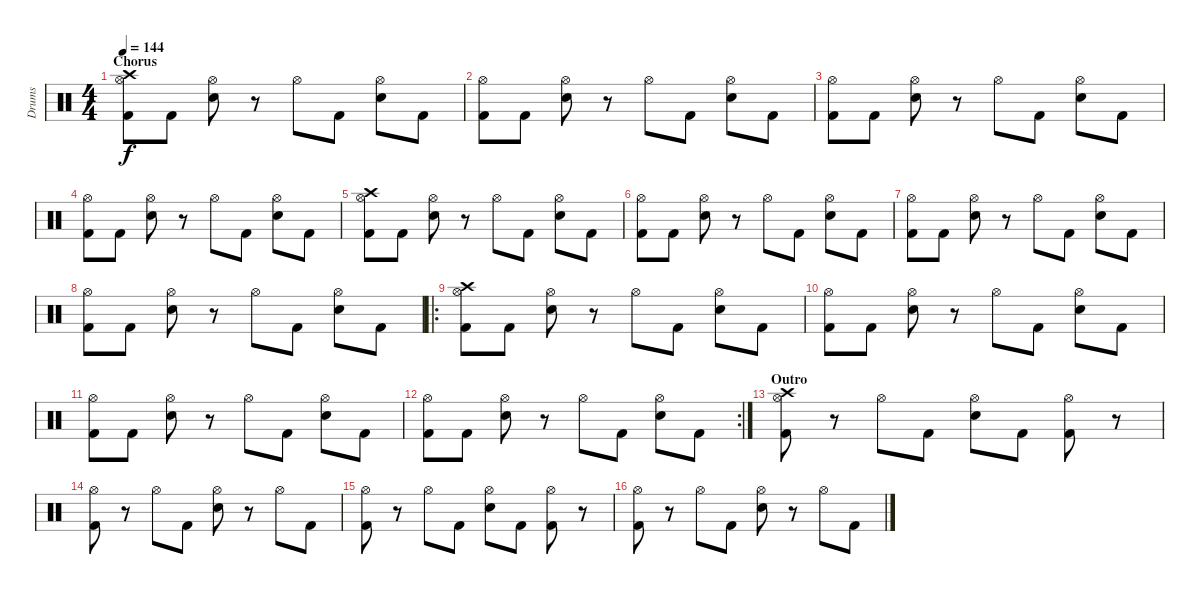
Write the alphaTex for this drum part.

\track ("Drums" "Drums") {instrument percussion}
\staff {score}
\articulation defaults
\ts (4 4)
\section ("" "Chorus")
\tempo 144
\clef neutral
\ks c
("Crash high (hit)" "Hi-Hat (open)" "Kick (hit) 2").8{dy f} "Kick (hit) 2".8 ("Hi-Hat (open)" "Electric Snare (hit)").8 r.8 "Hi-Hat (open)".8 "Kick (hit) 2".8 ("Hi-Hat (open)" "Electric Snare (hit)").8 "Kick (hit) 2".8 |
("Hi-Hat (open)" "Kick (hit) 2").8 "Kick (hit) 2".8 ("Hi-Hat (open)" "Electric Snare (hit)").8 r.8 "Hi-Hat (open)".8 "Kick (hit) 2".8 ("Hi-Hat (open)" "Electric Snare (hit)").8 "Kick (hit) 2".8 |
("Hi-Hat (open)" "Kick (hit) 2").8 "Kick (hit) 2".8 ("Hi-Hat (open)" "Electric Snare (hit)").8 r.8 "Hi-Hat (open)".8 "Kick (hit) 2".8 ("Hi-Hat (open)" "Electric Snare (hit)").8 "Kick (hit) 2".8 |
("Hi-Hat (open)" "Kick (hit) 2").8 "Kick (hit) 2".8 ("Hi-Hat (open)" "Electric Snare (hit)").8 r.8 "Hi-Hat (open)".8 "Kick (hit) 2".8 ("Hi-Hat (open)" "Electric Snare (hit)").8 "Kick (hit) 2".8 |
("Crash high (hit)" "Hi-Hat (open)" "Kick (hit) 2").8 "Kick (hit) 2".8 ("Hi-Hat (open)" "Electric Snare (hit)").8 r.8 "Hi-Hat (open)".8 "Kick (hit) 2".8 ("Hi-Hat (open)" "Electric Snare (hit)").8 "Kick (hit) 2".8 |
("Hi-Hat (open)" "Kick (hit) 2").8 "Kick (hit) 2".8 ("Hi-Hat (open)" "Electric Snare (hit)").8 r.8 "Hi-Hat (open)".8 "Kick (hit) 2".8 ("Hi-Hat (open)" "Electric Snare (hit)").8 "Kick (hit) 2".8 |
("Hi-Hat (open)" "Kick (hit) 2").8 "Kick (hit) 2".8 ("Hi-Hat (open)" "Electric Snare (hit)").8 r.8 "Hi-Hat (open)".8 "Kick (hit) 2".8 ("Hi-Hat (open)" "Electric Snare (hit)").8 "Kick (hit) 2".8 |
("Hi-Hat (open)" "Kick (hit) 2").8 "Kick (hit) 2".8 ("Hi-Hat (open)" "Electric Snare (hit)").8 r.8 "Hi-Hat (open)".8 "Kick (hit) 2".8 ("Hi-Hat (open)" "Electric Snare (hit)").8 "Kick (hit) 2".8 |
\ro
("Crash high (hit)" "Hi-Hat (open)" "Kick (hit) 2").8 "Kick (hit) 2".8 ("Hi-Hat (open)" "Electric Snare (hit)").8 r.8 "Hi-Hat (open)".8 "Kick (hit) 2".8 ("Hi-Hat (open)" "Electric Snare (hit)").8 "Kick (hit) 2".8 |
("Hi-Hat (open)" "Kick (hit) 2").8 "Kick (hit) 2".8 ("Hi-Hat (open)" "Electric Snare (hit)").8 r.8 "Hi-Hat (open)".8 "Kick (hit) 2".8 ("Hi-Hat (open)" "Electric Snare (hit)").8 "Kick (hit) 2".8 |
("Hi-Hat (open)" "Kick (hit) 2").8 "Kick (hit) 2".8 ("Hi-Hat (open)" "Electric Snare (hit)").8 r.8 "Hi-Hat (open)".8 "Kick (hit) 2".8 ("Hi-Hat (open)" "Electric Snare (hit)").8 "Kick (hit) 2".8 |
\rc 2
("Hi-Hat (open)" "Kick (hit) 2").8 "Kick (hit) 2".8 ("Hi-Hat (open)" "Electric Snare (hit)").8 r.8 "Hi-Hat (open)".8 "Kick (hit) 2".8 ("Hi-Hat (open)" "Electric Snare (hit)").8 "Kick (hit) 2".8 |
\section ("" "Outro")
("Crash high (hit)" "Hi-Hat (open)" "Kick (hit) 2").8 r.8 "Hi-Hat (open)".8 "Kick (hit) 2".8 ("Hi-Hat (open)" "Electric Snare (hit)").8 "Kick (hit) 2".8 ("Hi-Hat (open)" "Kick (hit) 2").8 r.8 |
("Hi-Hat (open)" "Kick (hit) 2").8 r.8 "Hi-Hat (open)".8 "Kick (hit) 2".8 ("Hi-Hat (open)" "Electric Snare (hit)").8 r.8 "Hi-Hat (open)".8 "Kick (hit) 2".8 |
("Hi-Hat (open)" "Kick (hit) 2").8 r.8 "Hi-Hat (open)".8 "Kick (hit) 2".8 ("Hi-Hat (open)" "Electric Snare (hit)").8 "Kick (hit) 2".8 ("Hi-Hat (open)" "Kick (hit) 2").8 r.8 |
("Hi-Hat (open)" "Kick (hit) 2").8 r.8 "Hi-Hat (open)".8 "Kick (hit) 2".8 ("Hi-Hat (open)" "Electric Snare (hit)").8 r.8 "Hi-Hat (open)".8 "Kick (hit) 2".8
